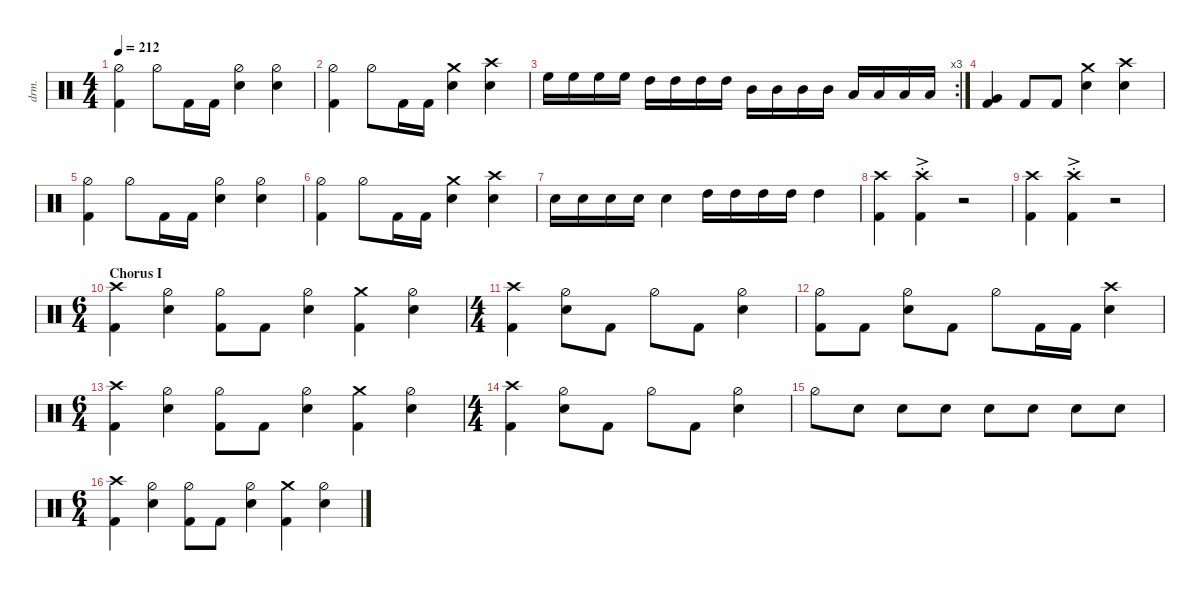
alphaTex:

\defaultSystemsLayout 4
\hideDynamics
\bracketExtendMode nobrackets
\track ("Drums" "drm.") {instrument percussion}
\staff {score}
\articulation defaults
\ts (4 4)
\tempo 212
\clef neutral
\ks c
("Hi-Hat (half)" "Kick (hit) 2").4{dy f} "Hi-Hat (half)".8 "Kick (hit) 2".16 "Kick (hit) 2".16 ("Snare (hit) 2" "Hi-Hat (half)").4 ("Snare (hit) 2" "Hi-Hat (half)").4 |
("Hi-Hat (half)" "Kick (hit) 2").4 "Hi-Hat (half)".8 "Kick (hit) 2".16 "Kick (hit) 2".16 ("Snare (hit) 2" "Crash medium (hit)").4 ("Snare (hit) 2" "Crash high (hit)").4 |
\rc 3 "High Floor Tom (hit)".16{dy fff} "High Floor Tom (hit)".16 "High Floor Tom (hit)".16 "High Floor Tom (hit)".16 "High Tom (hit)".16 "High Tom (hit)".16 "High Tom (hit)".16 "High Tom (hit)".16 "Mid Tom (hit)".16 "Mid Tom (hit)".16 "Mid Tom (hit)".16 "Mid Tom (hit)".16 "Low Tom (hit)".16 "Low Tom (hit)".16 "Low Tom (hit)".16 "Low Tom (hit)".16
|
("Kick (hit) 2" "Very Low Tom (hit)").4{dy f} "Kick (hit) 2".8 "Kick (hit) 2".8 ("Snare (hit) 2" "Crash medium (hit)").4 ("Snare (hit) 2" "Crash high (hit)").4 |
("Hi-Hat (half)" "Kick (hit) 2").4 "Hi-Hat (half)".8 "Kick (hit) 2".16 "Kick (hit) 2".16 ("Snare (hit) 2" "Hi-Hat (half)").4 ("Snare (hit) 2" "Hi-Hat (half)").4 |
("Hi-Hat (half)" "Kick (hit) 2").4 "Hi-Hat (half)".8 "Kick (hit) 2".16 "Kick (hit) 2".16 ("Snare (hit) 2" "Crash medium (hit)").4 ("Snare (hit) 2" "Crash high (hit)").4 |
"Snare (hit) 2".16 "Snare (hit) 2".16{dy mf} "Snare (hit) 2".16 "Snare (hit) 2".16 "Snare (hit) 2".4{dy f} "High Tom (hit)".16{dy ff} "High Tom (hit)".16 "High Tom (hit)".16 "High Tom (hit)".16 "High Tom (hit)".4 |
("Kick (hit) 2" "Crash high (hit)").4 ("Kick (hit) 2" "Crash high (hit)"{ac st}).4 r.2 |
("Kick (hit) 2" "Crash high (hit)").4 ("Kick (hit) 2" "Crash high (hit)"{ac st}).4 r.2 |
\ts (6 4)
\beaming (8 2 2 2 6)
\section ("" "Chorus I")
("Crash high (hit)" "Kick (hit) 2").4{dy f} ("Hi-Hat (half)" "Snare (hit) 2").4 ("Hi-Hat (half)" "Kick (hit) 2").8 "Kick (hit) 2".8 ("Hi-Hat (half)" "Snare (hit) 2").4 ("Kick (hit) 2" "Crash medium (hit)").4 ("Hi-Hat (half)" "Snare (hit) 2").4 |
\ts (4 4)
\beaming (8 2 2 2 2)
("Crash high (hit)" "Kick (hit) 2").4 ("Hi-Hat (half)" "Snare (hit) 2").8 "Kick (hit) 2".8 "Hi-Hat (half)".8 "Kick (hit) 2".8 ("Hi-Hat (half)" "Snare (hit) 2").4 |
("Hi-Hat (half)" "Kick (hit) 2").8 "Kick (hit) 2".8 ("Hi-Hat (half)" "Snare (hit) 2").8 "Kick (hit) 2".8 "Hi-Hat (half)".8 "Kick (hit) 2".16 "Kick (hit) 2".16 ("Snare (hit) 2" "Crash high (hit)").4 |
\ts (6 4)
\beaming (8 2 2 2 6)
("Crash high (hit)" "Kick (hit) 2").4 ("Hi-Hat (half)" "Snare (hit) 2").4 ("Hi-Hat (half)" "Kick (hit) 2").8 "Kick (hit) 2".8 ("Hi-Hat (half)" "Snare (hit) 2").4 ("Kick (hit) 2" "Crash medium (hit)").4 ("Hi-Hat (half)" "Snare (hit) 2").4 |
\ts (4 4)
\beaming (8 2 2 2 2)
("Crash high (hit)" "Kick (hit) 2").4 ("Hi-Hat (half)" "Snare (hit) 2").8 "Kick (hit) 2".8 "Hi-Hat (half)".8 "Kick (hit) 2".8 ("Hi-Hat (half)" "Snare (hit) 2").4 |
"Hi-Hat (half)".8 "Snare (hit) 2".8 "Snare (hit) 2".8 "Snare (hit) 2".8 "Snare (hit) 2".8 "Snare (hit) 2".8 "Snare (hit) 2".8 "Snare (hit) 2".8 |
\ts (6 4)
\beaming (8 2 2 2 6)
("Crash high (hit)" "Kick (hit) 2").4 ("Hi-Hat (half)" "Snare (hit) 2").4 ("Hi-Hat (half)" "Kick (hit) 2").8 "Kick (hit) 2".8 ("Hi-Hat (half)" "Snare (hit) 2").4 ("Kick (hit) 2" "Crash medium (hit)").4 ("Hi-Hat (half)" "Snare (hit) 2").4
